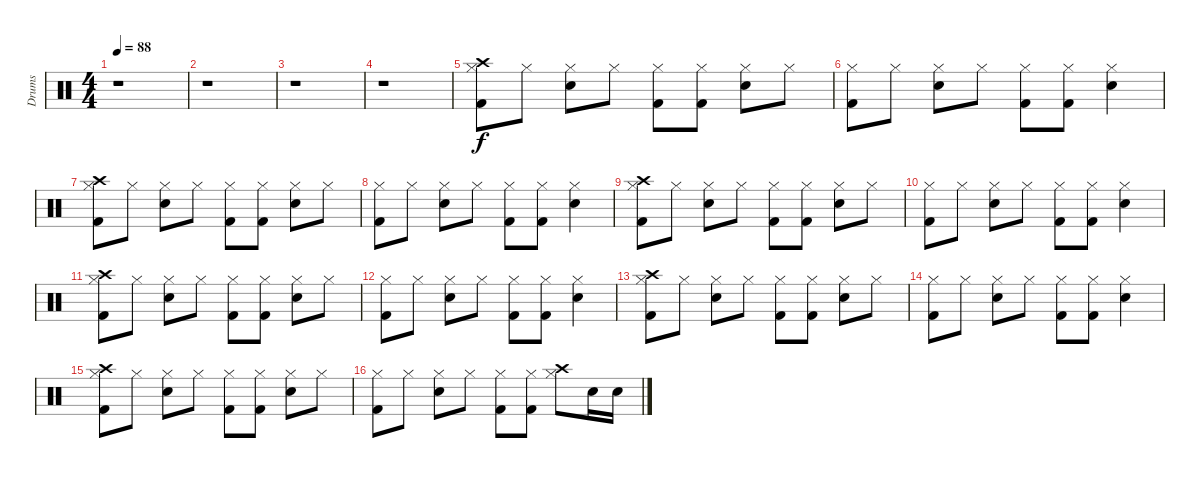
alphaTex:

\track ("Drums" "Drums") {instrument percussion}
\staff {score}
\articulation defaults
\ts (4 4)
\tempo 88
\clef neutral
\ks c
r.1{dy f} |
r.1 |
r.1 |
r.1 |
("Crash high (hit)" "Hi-Hat (closed)" "Kick (hit) 2").8 "Hi-Hat (closed)".8 ("Hi-Hat (closed)" "Electric Snare (hit)").8 "Hi-Hat (closed)".8 ("Hi-Hat (closed)" "Kick (hit) 2").8 ("Hi-Hat (closed)" "Kick (hit) 2").8 ("Hi-Hat (closed)" "Electric Snare (hit)").8 "Hi-Hat (closed)".8 |
("Hi-Hat (closed)" "Kick (hit) 2").8 "Hi-Hat (closed)".8 ("Hi-Hat (closed)" "Electric Snare (hit)").8 "Hi-Hat (closed)".8 ("Hi-Hat (closed)" "Kick (hit) 2").8 ("Hi-Hat (closed)" "Kick (hit) 2").8 ("Hi-Hat (closed)" "Electric Snare (hit)").4 |
("Crash high (hit)" "Hi-Hat (closed)" "Kick (hit) 2").8 "Hi-Hat (closed)".8 ("Hi-Hat (closed)" "Electric Snare (hit)").8 "Hi-Hat (closed)".8 ("Hi-Hat (closed)" "Kick (hit) 2").8 ("Hi-Hat (closed)" "Kick (hit) 2").8 ("Hi-Hat (closed)" "Electric Snare (hit)").8 "Hi-Hat (closed)".8 |
("Hi-Hat (closed)" "Kick (hit) 2").8 "Hi-Hat (closed)".8 ("Hi-Hat (closed)" "Electric Snare (hit)").8 "Hi-Hat (closed)".8 ("Hi-Hat (closed)" "Kick (hit) 2").8 ("Hi-Hat (closed)" "Kick (hit) 2").8 ("Hi-Hat (closed)" "Electric Snare (hit)").4 |
("Crash high (hit)" "Hi-Hat (closed)" "Kick (hit) 2").8 "Hi-Hat (closed)".8 ("Hi-Hat (closed)" "Electric Snare (hit)").8 "Hi-Hat (closed)".8 ("Hi-Hat (closed)" "Kick (hit) 2").8 ("Hi-Hat (closed)" "Kick (hit) 2").8 ("Hi-Hat (closed)" "Electric Snare (hit)").8 "Hi-Hat (closed)".8 |
("Hi-Hat (closed)" "Kick (hit) 2").8 "Hi-Hat (closed)".8 ("Hi-Hat (closed)" "Electric Snare (hit)").8 "Hi-Hat (closed)".8 ("Hi-Hat (closed)" "Kick (hit) 2").8 ("Hi-Hat (closed)" "Kick (hit) 2").8 ("Hi-Hat (closed)" "Electric Snare (hit)").4 |
("Crash high (hit)" "Hi-Hat (closed)" "Kick (hit) 2").8 "Hi-Hat (closed)".8 ("Hi-Hat (closed)" "Electric Snare (hit)").8 "Hi-Hat (closed)".8 ("Hi-Hat (closed)" "Kick (hit) 2").8 ("Hi-Hat (closed)" "Kick (hit) 2").8 ("Hi-Hat (closed)" "Electric Snare (hit)").8 "Hi-Hat (closed)".8 |
("Hi-Hat (closed)" "Kick (hit) 2").8 "Hi-Hat (closed)".8 ("Hi-Hat (closed)" "Electric Snare (hit)").8 "Hi-Hat (closed)".8 ("Hi-Hat (closed)" "Kick (hit) 2").8 ("Hi-Hat (closed)" "Kick (hit) 2").8 ("Hi-Hat (closed)" "Electric Snare (hit)").4 |
("Crash high (hit)" "Hi-Hat (closed)" "Kick (hit) 2").8 "Hi-Hat (closed)".8 ("Hi-Hat (closed)" "Electric Snare (hit)").8 "Hi-Hat (closed)".8 ("Hi-Hat (closed)" "Kick (hit) 2").8 ("Hi-Hat (closed)" "Kick (hit) 2").8 ("Hi-Hat (closed)" "Electric Snare (hit)").8 "Hi-Hat (closed)".8 |
("Hi-Hat (closed)" "Kick (hit) 2").8 "Hi-Hat (closed)".8 ("Hi-Hat (closed)" "Electric Snare (hit)").8 "Hi-Hat (closed)".8 ("Hi-Hat (closed)" "Kick (hit) 2").8 ("Hi-Hat (closed)" "Kick (hit) 2").8 ("Hi-Hat (closed)" "Electric Snare (hit)").4 |
("Crash high (hit)" "Hi-Hat (closed)" "Kick (hit) 2").8 "Hi-Hat (closed)".8 ("Hi-Hat (closed)" "Electric Snare (hit)").8 "Hi-Hat (closed)".8 ("Hi-Hat (closed)" "Kick (hit) 2").8 ("Hi-Hat (closed)" "Kick (hit) 2").8 ("Hi-Hat (closed)" "Electric Snare (hit)").8 "Hi-Hat (closed)".8 |
("Hi-Hat (closed)" "Kick (hit) 2").8 "Hi-Hat (closed)".8 ("Hi-Hat (closed)" "Electric Snare (hit)").8 "Hi-Hat (closed)".8 ("Hi-Hat (closed)" "Kick (hit) 2").8 ("Hi-Hat (closed)" "Kick (hit) 2").8 ("Crash high (hit)" "Hi-Hat (closed)").8 "Electric Snare (hit)".16 "Electric Snare (hit)".16
